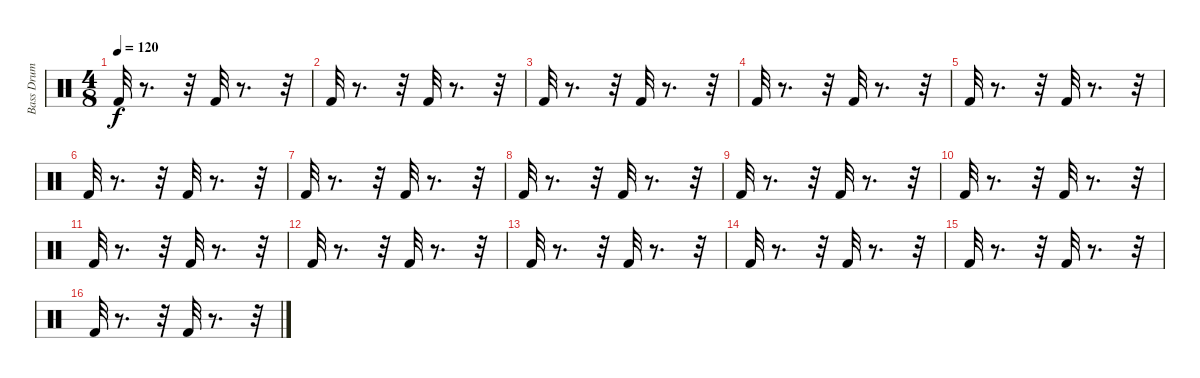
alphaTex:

\track ("Bass Drum" "Bass Drum") {instrument percussion}
\staff {score}
\articulation defaults
\ts (4 8)
\tempo 120
\clef neutral
\ks c "Kick (hit) 2".32{dy f}
r.8{d} r.32 "Kick (hit) 2".32 r.8{d} r.32 |
"Kick (hit) 2".32 r.8{d} r.32 "Kick (hit) 2".32 r.8{d} r.32 |
"Kick (hit) 2".32 r.8{d} r.32 "Kick (hit) 2".32 r.8{d} r.32 |
"Kick (hit) 2".32 r.8{d} r.32 "Kick (hit) 2".32 r.8{d} r.32 |
"Kick (hit) 2".32 r.8{d} r.32 "Kick (hit) 2".32 r.8{d} r.32 |
"Kick (hit) 2".32 r.8{d} r.32 "Kick (hit) 2".32 r.8{d} r.32 |
"Kick (hit) 2".32 r.8{d} r.32 "Kick (hit) 2".32 r.8{d} r.32 |
"Kick (hit) 2".32 r.8{d} r.32 "Kick (hit) 2".32 r.8{d} r.32 |
"Kick (hit) 2".32 r.8{d} r.32 "Kick (hit) 2".32 r.8{d} r.32 |
"Kick (hit) 2".32 r.8{d} r.32 "Kick (hit) 2".32 r.8{d} r.32 |
"Kick (hit) 2".32 r.8{d} r.32 "Kick (hit) 2".32 r.8{d} r.32 |
"Kick (hit) 2".32 r.8{d} r.32 "Kick (hit) 2".32 r.8{d} r.32 |
"Kick (hit) 2".32 r.8{d} r.32 "Kick (hit) 2".32 r.8{d} r.32 |
"Kick (hit) 2".32 r.8{d} r.32 "Kick (hit) 2".32 r.8{d} r.32 |
"Kick (hit) 2".32 r.8{d} r.32 "Kick (hit) 2".32 r.8{d} r.32 |
"Kick (hit) 2".32 r.8{d} r.32 "Kick (hit) 2".32 r.8{d} r.32
